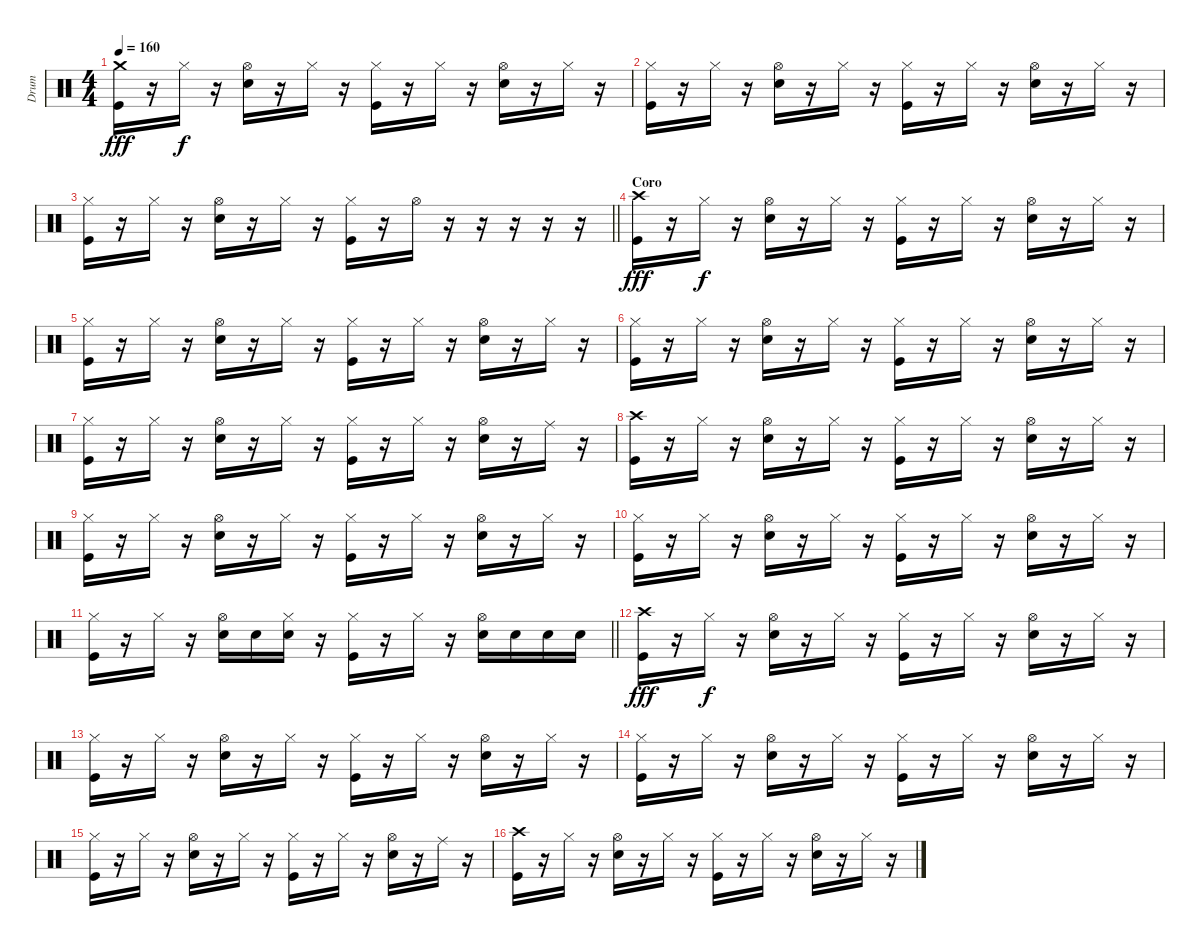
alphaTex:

\track ("Drum" "Drum") {instrument percussion}
\staff {score}
\articulation defaults
\ts (4 4)
\tempo 160
\clef neutral
\ks c
("Crash medium (hit)" "Kick (hit)").16{dy fff} r.16 "Hi-Hat (closed)".16{dy f} r.16 ("Hi-Hat (open)" "Electric Snare (hit)").16 r.16 "Hi-Hat (closed)".16 r.16 ("Hi-Hat (closed)" "Kick (hit)").16 r.16 "Hi-Hat (closed)".16 r.16 ("Hi-Hat (open)" "Electric Snare (hit)").16 r.16 "Hi-Hat (closed)".16 r.16 |
("Hi-Hat (closed)" "Kick (hit)").16 r.16 "Hi-Hat (closed)".16 r.16 ("Hi-Hat (open)" "Electric Snare (hit)").16 r.16 "Hi-Hat (closed)".16 r.16 ("Hi-Hat (closed)" "Kick (hit)").16 r.16 "Hi-Hat (closed)".16 r.16 ("Hi-Hat (open)" "Electric Snare (hit)").16 r.16 "Hi-Hat (closed)".16 r.16 |
\barLineRight lightlight
("Hi-Hat (closed)" "Kick (hit)").16 r.16 "Hi-Hat (closed)".16 r.16 ("Hi-Hat (open)" "Electric Snare (hit)").16 r.16 "Hi-Hat (closed)".16 r.16 ("Hi-Hat (closed)" "Kick (hit)").16 r.16 "Hi-Hat (open)".16 r.16 r.16 r.16 r.16 r.16 |
\section ("" "Coro")
("Crash high (hit)" "Kick (hit)").16{dy fff} r.16 "Hi-Hat (closed)".16{dy f} r.16 ("Hi-Hat (open)" "Electric Snare (hit)").16 r.16 "Hi-Hat (closed)".16 r.16 ("Hi-Hat (closed)" "Kick (hit)").16 r.16 "Hi-Hat (closed)".16 r.16 ("Hi-Hat (open)" "Electric Snare (hit)").16 r.16 "Hi-Hat (closed)".16 r.16 |
("Hi-Hat (closed)" "Kick (hit)").16 r.16 "Hi-Hat (closed)".16 r.16 ("Hi-Hat (open)" "Electric Snare (hit)").16 r.16 "Hi-Hat (closed)".16 r.16 ("Hi-Hat (closed)" "Kick (hit)").16 r.16 "Hi-Hat (closed)".16 r.16 ("Hi-Hat (open)" "Electric Snare (hit)").16 r.16 "Hi-Hat (closed)".16 r.16 |
("Hi-Hat (closed)" "Kick (hit)").16 r.16 "Hi-Hat (closed)".16 r.16 ("Hi-Hat (open)" "Electric Snare (hit)").16 r.16 "Hi-Hat (closed)".16 r.16 ("Hi-Hat (closed)" "Kick (hit)").16 r.16 "Hi-Hat (closed)".16 r.16 ("Hi-Hat (open)" "Electric Snare (hit)").16 r.16 "Hi-Hat (closed)".16 r.16 |
("Hi-Hat (closed)" "Kick (hit)").16 r.16 "Hi-Hat (closed)".16 r.16 ("Hi-Hat (open)" "Electric Snare (hit)").16 r.16 "Hi-Hat (closed)".16 r.16 ("Hi-Hat (closed)" "Kick (hit)").16 r.16 "Hi-Hat (closed)".16 r.16 ("Hi-Hat (open)" "Electric Snare (hit)").16 r.16 "Ride (middle)".16 r.16 |
("Crash high (hit)" "Kick (hit)").16 r.16 "Hi-Hat (closed)".16 r.16 ("Hi-Hat (open)" "Electric Snare (hit)").16 r.16 "Hi-Hat (closed)".16 r.16 ("Hi-Hat (closed)" "Kick (hit)").16 r.16 "Hi-Hat (closed)".16 r.16 ("Hi-Hat (open)" "Electric Snare (hit)").16 r.16 "Hi-Hat (closed)".16 r.16 |
("Hi-Hat (closed)" "Kick (hit)").16 r.16 "Hi-Hat (closed)".16 r.16 ("Hi-Hat (open)" "Electric Snare (hit)").16 r.16 "Hi-Hat (closed)".16 r.16 ("Hi-Hat (closed)" "Kick (hit)").16 r.16 "Hi-Hat (closed)".16 r.16 ("Hi-Hat (open)" "Electric Snare (hit)").16 r.16 "Hi-Hat (closed)".16 r.16 |
("Hi-Hat (closed)" "Kick (hit)").16 r.16 "Hi-Hat (closed)".16 r.16 ("Hi-Hat (open)" "Electric Snare (hit)").16 r.16 "Hi-Hat (closed)".16 r.16 ("Hi-Hat (closed)" "Kick (hit)").16 r.16 "Hi-Hat (closed)".16 r.16 ("Hi-Hat (open)" "Electric Snare (hit)").16 r.16 "Hi-Hat (closed)".16 r.16 |
\barLineRight lightlight
("Hi-Hat (closed)" "Kick (hit)").16 r.16 "Hi-Hat (closed)".16 r.16 ("Hi-Hat (open)" "Electric Snare (hit)").16 "Electric Snare (hit)".16 ("Hi-Hat (closed)" "Electric Snare (hit)").16 r.16 ("Hi-Hat (closed)" "Kick (hit)").16 r.16 "Hi-Hat (closed)".16 r.16 ("Hi-Hat (open)" "Electric Snare (hit)").16 "Electric Snare (hit)".16 "Electric Snare (hit)".16 "Electric Snare (hit)".16 |
("Crash high (hit)" "Kick (hit)").16{dy fff} r.16 "Hi-Hat (closed)".16{dy f} r.16 ("Hi-Hat (open)" "Electric Snare (hit)").16 r.16 "Hi-Hat (closed)".16 r.16 ("Hi-Hat (closed)" "Kick (hit)").16 r.16 "Hi-Hat (closed)".16 r.16 ("Hi-Hat (open)" "Electric Snare (hit)").16 r.16 "Hi-Hat (closed)".16 r.16 |
("Hi-Hat (closed)" "Kick (hit)").16 r.16 "Hi-Hat (closed)".16 r.16 ("Hi-Hat (open)" "Electric Snare (hit)").16 r.16 "Hi-Hat (closed)".16 r.16 ("Hi-Hat (closed)" "Kick (hit)").16 r.16 "Hi-Hat (closed)".16 r.16 ("Hi-Hat (open)" "Electric Snare (hit)").16 r.16 "Hi-Hat (closed)".16 r.16 |
("Hi-Hat (closed)" "Kick (hit)").16 r.16 "Hi-Hat (closed)".16 r.16 ("Hi-Hat (open)" "Electric Snare (hit)").16 r.16 "Hi-Hat (closed)".16 r.16 ("Hi-Hat (closed)" "Kick (hit)").16 r.16 "Hi-Hat (closed)".16 r.16 ("Hi-Hat (open)" "Electric Snare (hit)").16 r.16 "Hi-Hat (closed)".16 r.16 |
("Hi-Hat (closed)" "Kick (hit)").16 r.16 "Hi-Hat (closed)".16 r.16 ("Hi-Hat (open)" "Electric Snare (hit)").16 r.16 "Hi-Hat (closed)".16 r.16 ("Hi-Hat (closed)" "Kick (hit)").16 r.16 "Hi-Hat (closed)".16 r.16 ("Hi-Hat (open)" "Electric Snare (hit)").16 r.16 "Ride (middle)".16 r.16 |
("Crash high (hit)" "Kick (hit)").16 r.16 "Hi-Hat (closed)".16 r.16 ("Hi-Hat (open)" "Electric Snare (hit)").16 r.16 "Hi-Hat (closed)".16 r.16 ("Hi-Hat (closed)" "Kick (hit)").16 r.16 "Hi-Hat (closed)".16 r.16 ("Hi-Hat (open)" "Electric Snare (hit)").16 r.16 "Hi-Hat (closed)".16 r.16
